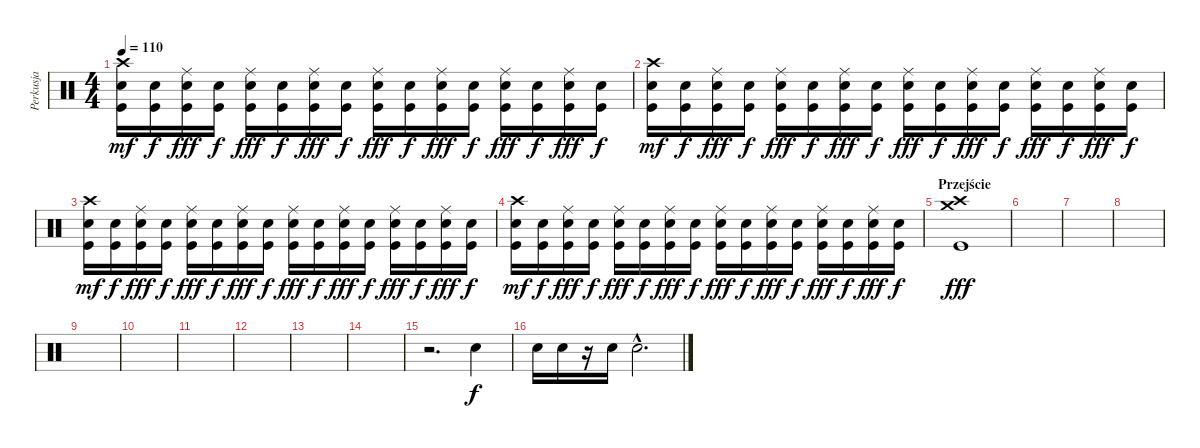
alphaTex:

\track ("Perkusja" "Perkusja") {instrument percussion}
\staff {score}
\articulation defaults
\ts (4 4)
\tempo 110
\clef neutral
\ks c
("Crash high (hit)" "Snare (hit) 2" "Kick (hit)").16{dy mf} ("Snare (hit) 2" "Kick (hit)").16{dy f} ("Ride (middle)" "Snare (hit) 2" "Kick (hit)").16{dy fff} ("Snare (hit) 2" "Kick (hit)").16{dy f} ("Ride (middle)" "Snare (hit) 2" "Kick (hit)").16{dy fff} ("Snare (hit) 2" "Kick (hit)").16{dy f} ("Ride (middle)" "Snare (hit) 2" "Kick (hit)").16{dy fff} ("Snare (hit) 2" "Kick (hit)").16{dy f} ("Ride (middle)" "Snare (hit) 2" "Kick (hit)").16{dy fff} ("Snare (hit) 2" "Kick (hit)").16{dy f} ("Ride (middle)" "Snare (hit) 2" "Kick (hit)").16{dy fff} ("Snare (hit) 2" "Kick (hit)").16{dy f} ("Ride (middle)" "Snare (hit) 2" "Kick (hit)").16{dy fff} ("Snare (hit) 2" "Kick (hit)").16{dy f} ("Ride (middle)" "Snare (hit) 2" "Kick (hit)").16{dy fff} ("Snare (hit) 2" "Kick (hit)").16{dy f} |
("Crash high (hit)" "Snare (hit) 2" "Kick (hit)").16{dy mf} ("Snare (hit) 2" "Kick (hit)").16{dy f} ("Ride (middle)" "Snare (hit) 2" "Kick (hit)").16{dy fff} ("Snare (hit) 2" "Kick (hit)").16{dy f} ("Ride (middle)" "Snare (hit) 2" "Kick (hit)").16{dy fff} ("Snare (hit) 2" "Kick (hit)").16{dy f} ("Ride (middle)" "Snare (hit) 2" "Kick (hit)").16{dy fff} ("Snare (hit) 2" "Kick (hit)").16{dy f} ("Ride (middle)" "Snare (hit) 2" "Kick (hit)").16{dy fff} ("Snare (hit) 2" "Kick (hit)").16{dy f} ("Ride (middle)" "Snare (hit) 2" "Kick (hit)").16{dy fff} ("Snare (hit) 2" "Kick (hit)").16{dy f} ("Ride (middle)" "Snare (hit) 2" "Kick (hit)").16{dy fff} ("Snare (hit) 2" "Kick (hit)").16{dy f} ("Ride (middle)" "Snare (hit) 2" "Kick (hit)").16{dy fff} ("Snare (hit) 2" "Kick (hit)").16{dy f} |
("Crash high (hit)" "Snare (hit) 2" "Kick (hit)").16{dy mf} ("Snare (hit) 2" "Kick (hit)").16{dy f} ("Ride (middle)" "Snare (hit) 2" "Kick (hit)").16{dy fff} ("Snare (hit) 2" "Kick (hit)").16{dy f} ("Ride (middle)" "Snare (hit) 2" "Kick (hit)").16{dy fff} ("Snare (hit) 2" "Kick (hit)").16{dy f} ("Ride (middle)" "Snare (hit) 2" "Kick (hit)").16{dy fff} ("Snare (hit) 2" "Kick (hit)").16{dy f} ("Ride (middle)" "Snare (hit) 2" "Kick (hit)").16{dy fff} ("Snare (hit) 2" "Kick (hit)").16{dy f} ("Ride (middle)" "Snare (hit) 2" "Kick (hit)").16{dy fff} ("Snare (hit) 2" "Kick (hit)").16{dy f} ("Ride (middle)" "Snare (hit) 2" "Kick (hit)").16{dy fff} ("Snare (hit) 2" "Kick (hit)").16{dy f} ("Ride (middle)" "Snare (hit) 2" "Kick (hit)").16{dy fff} ("Snare (hit) 2" "Kick (hit)").16{dy f} |
("Crash high (hit)" "Snare (hit) 2" "Kick (hit)").16{dy mf} ("Snare (hit) 2" "Kick (hit)").16{dy f} ("Ride (middle)" "Snare (hit) 2" "Kick (hit)").16{dy fff} ("Snare (hit) 2" "Kick (hit)").16{dy f} ("Ride (middle)" "Snare (hit) 2" "Kick (hit)").16{dy fff} ("Snare (hit) 2" "Kick (hit)").16{dy f} ("Ride (middle)" "Snare (hit) 2" "Kick (hit)").16{dy fff} ("Snare (hit) 2" "Kick (hit)").16{dy f} ("Ride (middle)" "Snare (hit) 2" "Kick (hit)").16{dy fff} ("Snare (hit) 2" "Kick (hit)").16{dy f} ("Ride (middle)" "Snare (hit) 2" "Kick (hit)").16{dy fff} ("Snare (hit) 2" "Kick (hit)").16{dy f} ("Ride (middle)" "Snare (hit) 2" "Kick (hit)").16{dy fff} ("Snare (hit) 2" "Kick (hit)").16{dy f} ("Ride (middle)" "Snare (hit) 2" "Kick (hit)").16{dy fff} ("Snare (hit) 2" "Kick (hit)").16{dy f} |
\section ("" "Przejście")
("Crash high (hit)" "Crash medium (hit)" "Kick (hit)").1{dy fff} |
|
|
|
|
|
|
|
|
|
r.2{d} "Snare (hit) 2".4{dy f} |
"Snare (hit) 2".16 "Snare (hit) 2".16 r.16 "Snare (hit) 2".16 "Snare (hit) 2"{hac}.2{d}
